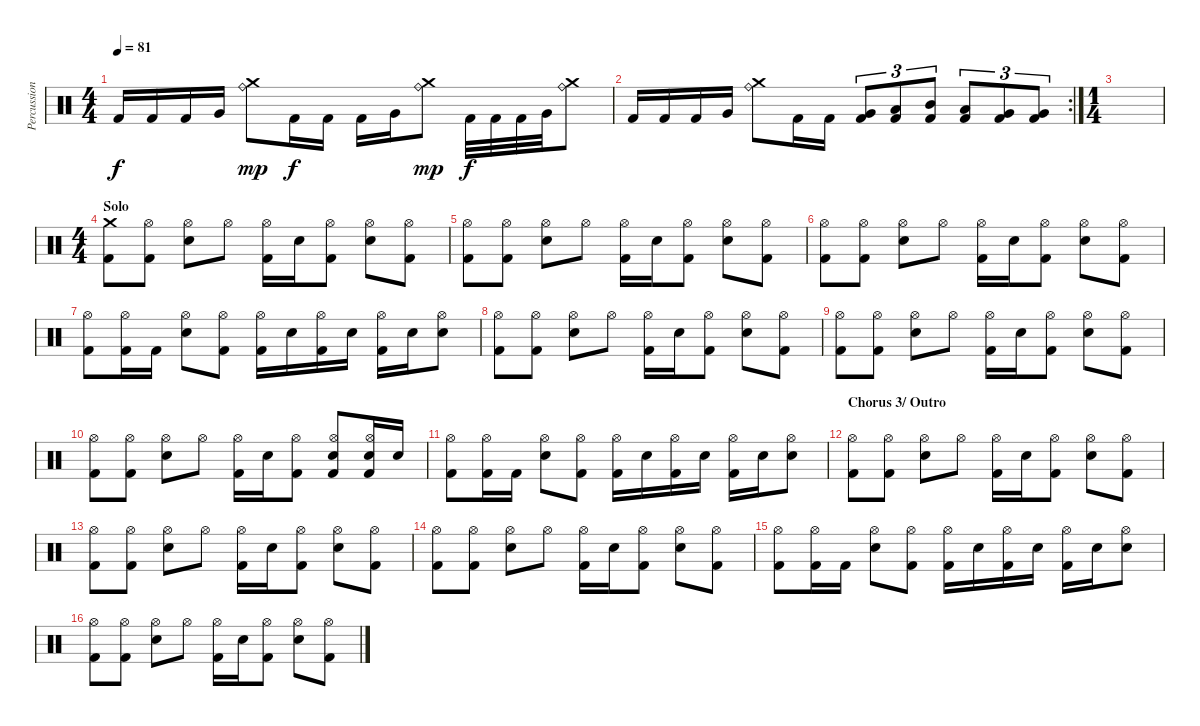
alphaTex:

\track ("Percussion" "Percussion") {instrument percussion}
\staff {score}
\articulation defaults
\ts (4 4)
\tempo 81
\clef neutral
\ks c "Kick (hit) 2".16{dy f} "Kick (hit) 2".16 "Kick (hit) 2".16 "Very Low Tom (hit)".16
("Crash medium (hit)" "Ride (bell)").8{dy mp} "Kick (hit) 2".16{dy f} "Kick (hit) 2".16 "Kick (hit) 2".16 "Very Low Tom (hit)".16 ("Crash medium (hit)" "Ride (bell)").8{dy mp} "Kick (hit) 2".32{dy f} "Kick (hit) 2".32 "Kick (hit) 2".32 "Very Low Tom (hit)".32 ("Crash medium (hit)" "Ride (bell)").8 |
\rc 2 "Kick (hit) 2".16 "Kick (hit) 2".16 "Kick (hit) 2".16 "Very Low Tom (hit)".16
("Crash medium (hit)" "Ride (bell)").8 "Kick (hit) 2".16 "Kick (hit) 2".16 ("Very Low Tom (hit)" "Kick (hit) 2").8{tu (3 2)} ("Low Tom (hit)" "Kick (hit) 2").8{tu (3 2)} ("Mid Tom (hit)" "Kick (hit) 2").8{tu (3 2)} ("Low Tom (hit)" "Kick (hit) 2").8{tu (3 2)} ("Very Low Tom (hit)" "Kick (hit) 2").8{tu (3 2)} ("Very Low Tom (hit)" "Kick (hit) 2").8{tu (3 2)} |
\ts (1 4)
|
\ts (4 4)
\section ("" "Solo")
("Crash medium (hit)" "Kick (hit) 2").8 ("Hi-Hat (open)" "Kick (hit) 2").8 ("Hi-Hat (open)" "Snare (hit) 2").8 "Hi-Hat (open)".8 ("Hi-Hat (open)" "Kick (hit) 2").16 "Snare (hit) 2".16 ("Hi-Hat (open)" "Kick (hit) 2").8 ("Hi-Hat (open)" "Snare (hit) 2").8 ("Hi-Hat (open)" "Kick (hit) 2").8 |
("Hi-Hat (open)" "Kick (hit) 2").8 ("Hi-Hat (open)" "Kick (hit) 2").8 ("Hi-Hat (open)" "Snare (hit) 2").8 "Hi-Hat (open)".8 ("Hi-Hat (open)" "Kick (hit) 2").16 "Snare (hit) 2".16 ("Hi-Hat (open)" "Kick (hit) 2").8 ("Hi-Hat (open)" "Snare (hit) 2").8 ("Hi-Hat (open)" "Kick (hit) 2").8 |
("Hi-Hat (open)" "Kick (hit) 2").8 ("Hi-Hat (open)" "Kick (hit) 2").8 ("Hi-Hat (open)" "Snare (hit) 2").8 "Hi-Hat (open)".8 ("Hi-Hat (open)" "Kick (hit) 2").16 "Snare (hit) 2".16 ("Hi-Hat (open)" "Kick (hit) 2").8 ("Hi-Hat (open)" "Snare (hit) 2").8 ("Hi-Hat (open)" "Kick (hit) 2").8 |
("Hi-Hat (open)" "Kick (hit) 2").8 ("Hi-Hat (open)" "Kick (hit) 2").16 "Kick (hit) 2".16 ("Hi-Hat (open)" "Snare (hit) 2").8 ("Hi-Hat (open)" "Kick (hit) 2").8 ("Hi-Hat (open)" "Kick (hit) 2").16 "Snare (hit) 2".16 ("Hi-Hat (open)" "Kick (hit) 2").16 "Snare (hit) 2".16 ("Hi-Hat (open)" "Kick (hit) 2").16 "Snare (hit) 2".16 ("Hi-Hat (open)" "Snare (hit) 2").8 |
("Hi-Hat (open)" "Kick (hit) 2").8 ("Hi-Hat (open)" "Kick (hit) 2").8 ("Hi-Hat (open)" "Snare (hit) 2").8 "Hi-Hat (open)".8 ("Hi-Hat (open)" "Kick (hit) 2").16 "Snare (hit) 2".16 ("Hi-Hat (open)" "Kick (hit) 2").8 ("Hi-Hat (open)" "Snare (hit) 2").8 ("Hi-Hat (open)" "Kick (hit) 2").8 |
("Hi-Hat (open)" "Kick (hit) 2").8 ("Hi-Hat (open)" "Kick (hit) 2").8 ("Hi-Hat (open)" "Snare (hit) 2").8 "Hi-Hat (open)".8 ("Hi-Hat (open)" "Kick (hit) 2").16 "Snare (hit) 2".16 ("Hi-Hat (open)" "Kick (hit) 2").8 ("Hi-Hat (open)" "Snare (hit) 2").8 ("Hi-Hat (open)" "Kick (hit) 2").8 |
("Hi-Hat (open)" "Kick (hit) 2").8 ("Hi-Hat (open)" "Kick (hit) 2").8 ("Hi-Hat (open)" "Snare (hit) 2").8 "Hi-Hat (open)".8 ("Hi-Hat (open)" "Kick (hit) 2").16 "Snare (hit) 2".16 ("Hi-Hat (open)" "Kick (hit) 2").8 ("Hi-Hat (open)" "Snare (hit) 2" "Kick (hit) 2").8 ("Hi-Hat (open)" "Snare (hit) 2" "Kick (hit) 2").16 "Snare (hit) 2".16 |
("Hi-Hat (open)" "Kick (hit) 2").8 ("Hi-Hat (open)" "Kick (hit) 2").16 "Kick (hit) 2".16 ("Hi-Hat (open)" "Snare (hit) 2").8 ("Hi-Hat (open)" "Kick (hit) 2").8 ("Hi-Hat (open)" "Kick (hit) 2").16 "Snare (hit) 2".16 ("Hi-Hat (open)" "Kick (hit) 2").16 "Snare (hit) 2".16 ("Hi-Hat (open)" "Kick (hit) 2").16 "Snare (hit) 2".16 ("Hi-Hat (open)" "Snare (hit) 2").8 |
\section ("" "Chorus 3/ Outro")
("Hi-Hat (open)" "Kick (hit) 2").8 ("Hi-Hat (open)" "Kick (hit) 2").8 ("Hi-Hat (open)" "Snare (hit) 2").8 "Hi-Hat (open)".8 ("Hi-Hat (open)" "Kick (hit) 2").16 "Snare (hit) 2".16 ("Hi-Hat (open)" "Kick (hit) 2").8 ("Hi-Hat (open)" "Snare (hit) 2").8 ("Hi-Hat (open)" "Kick (hit) 2").8 |
("Hi-Hat (open)" "Kick (hit) 2").8 ("Hi-Hat (open)" "Kick (hit) 2").8 ("Hi-Hat (open)" "Snare (hit) 2").8 "Hi-Hat (open)".8 ("Hi-Hat (open)" "Kick (hit) 2").16 "Snare (hit) 2".16 ("Hi-Hat (open)" "Kick (hit) 2").8 ("Hi-Hat (open)" "Snare (hit) 2").8 ("Hi-Hat (open)" "Kick (hit) 2").8 |
("Hi-Hat (open)" "Kick (hit) 2").8 ("Hi-Hat (open)" "Kick (hit) 2").8 ("Hi-Hat (open)" "Snare (hit) 2").8 "Hi-Hat (open)".8 ("Hi-Hat (open)" "Kick (hit) 2").16 "Snare (hit) 2".16 ("Hi-Hat (open)" "Kick (hit) 2").8 ("Hi-Hat (open)" "Snare (hit) 2").8 ("Hi-Hat (open)" "Kick (hit) 2").8 |
("Hi-Hat (open)" "Kick (hit) 2").8 ("Hi-Hat (open)" "Kick (hit) 2").16 "Kick (hit) 2".16 ("Hi-Hat (open)" "Snare (hit) 2").8 ("Hi-Hat (open)" "Kick (hit) 2").8 ("Hi-Hat (open)" "Kick (hit) 2").16 "Snare (hit) 2".16 ("Hi-Hat (open)" "Kick (hit) 2").16 "Snare (hit) 2".16 ("Hi-Hat (open)" "Kick (hit) 2").16 "Snare (hit) 2".16 ("Hi-Hat (open)" "Snare (hit) 2").8 |
("Hi-Hat (open)" "Kick (hit) 2").8 ("Hi-Hat (open)" "Kick (hit) 2").8 ("Hi-Hat (open)" "Snare (hit) 2").8 "Hi-Hat (open)".8 ("Hi-Hat (open)" "Kick (hit) 2").16 "Snare (hit) 2".16 ("Hi-Hat (open)" "Kick (hit) 2").8 ("Hi-Hat (open)" "Snare (hit) 2").8 ("Hi-Hat (open)" "Kick (hit) 2").8
